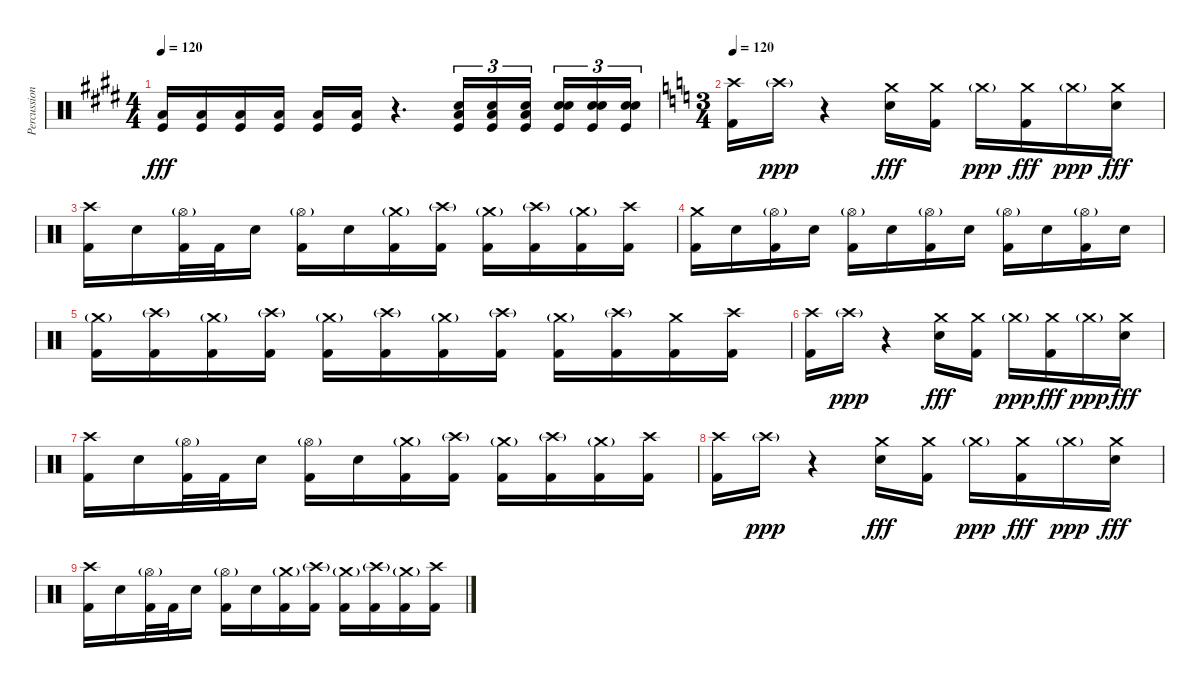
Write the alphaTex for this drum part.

\track ("Percussion" "Percussion") {instrument percussion}
\staff {score}
\articulation defaults
\ts (4 4)
\tempo 120
\clef neutral
\ks e
("Kick (hit)" "Low Floor Tom (hit)").16{dy fff} ("Kick (hit)" "Low Floor Tom (hit)").16 ("Kick (hit)" "Low Floor Tom (hit)").16 ("Kick (hit)" "Low Floor Tom (hit)").16 ("Kick (hit)" "Low Floor Tom (hit)").16 ("Kick (hit)" "Low Floor Tom (hit)").16 r.4{d} ("Kick (hit)" "Low Floor Tom (hit)" "Electric Snare (hit)").16{tu (3 2)} ("Kick (hit)" "Low Floor Tom (hit)" "Electric Snare (hit)").16{tu (3 2)} ("Kick (hit)" "Low Floor Tom (hit)" "Electric Snare (hit)").16{tu (3 2) beam splitsecondary} ("Electric Snare (hit)" "Electric Snare (hit)" "Kick (hit)").16{tu (3 2)} ("Electric Snare (hit)" "Electric Snare (hit)" "Kick (hit)").16{tu (3 2)} ("Electric Snare (hit)" "Electric Snare (hit)" "Kick (hit)").16{tu (3 2)} |
\ts (3 4)
\tempo 120
\ks c
("Crash high (hit)" "Kick (hit) 2").16 "Crash high (hit)"{g}.16{dy ppp} r.4 ("Crash medium (hit)" "Electric Snare (hit)").16{dy fff} ("Crash medium (hit)" "Kick (hit) 2").16 "Crash medium (hit)"{g}.16{dy ppp} ("Crash medium (hit)" "Kick (hit) 2").16{dy fff} "Crash medium (hit)"{g}.16{dy ppp} ("Crash medium (hit)" "Electric Snare (hit)").16{dy fff} |
("Crash high (hit)" "Kick (hit) 2").16 "Electric Snare (hit)".16 ("Hi-Hat (open)"{g} "Kick (hit) 2").32 "Kick (hit) 2".32 "Electric Snare (hit)".16 ("Hi-Hat (open)"{g} "Kick (hit) 2").16 "Electric Snare (hit)".16 ("Crash medium (hit)"{g} "Kick (hit) 2").16 ("Crash high (hit)"{g} "Kick (hit) 2").16 ("Crash medium (hit)"{g} "Kick (hit) 2").16 ("Crash high (hit)"{g} "Kick (hit) 2").16 ("Crash medium (hit)"{g} "Kick (hit) 2").16 ("Crash high (hit)" "Kick (hit) 2").16 |
("Crash medium (hit)" "Kick (hit) 2").16 "Electric Snare (hit)".16 ("Hi-Hat (open)"{g} "Kick (hit) 2").16 "Electric Snare (hit)".16 ("Hi-Hat (open)"{g} "Kick (hit) 2").16 "Electric Snare (hit)".16 ("Hi-Hat (open)"{g} "Kick (hit) 2").16 "Electric Snare (hit)".16 ("Hi-Hat (open)"{g} "Kick (hit) 2").16 "Electric Snare (hit)".16 ("Hi-Hat (open)"{g} "Kick (hit) 2").16 "Electric Snare (hit)".16 |
("Crash medium (hit)"{g} "Kick (hit) 2").16 ("Crash high (hit)"{g} "Kick (hit) 2").16 ("Crash medium (hit)"{g} "Kick (hit) 2").16 ("Crash high (hit)"{g} "Kick (hit) 2").16 ("Crash medium (hit)"{g} "Kick (hit) 2").16 ("Crash high (hit)"{g} "Kick (hit) 2").16 ("Crash medium (hit)"{g} "Kick (hit) 2").16 ("Crash high (hit)"{g} "Kick (hit) 2").16 ("Crash medium (hit)"{g} "Kick (hit) 2").16 ("Crash high (hit)"{g} "Kick (hit) 2").16 ("Crash medium (hit)" "Kick (hit) 2").16 ("Crash high (hit)" "Kick (hit) 2").16 |
("Crash high (hit)" "Kick (hit) 2").16 "Crash high (hit)"{g}.16{dy ppp} r.4 ("Crash medium (hit)" "Electric Snare (hit)").16{dy fff} ("Crash medium (hit)" "Kick (hit) 2").16 "Crash medium (hit)"{g}.16{dy ppp} ("Crash medium (hit)" "Kick (hit) 2").16{dy fff} "Crash medium (hit)"{g}.16{dy ppp} ("Crash medium (hit)" "Electric Snare (hit)").16{dy fff} |
("Crash high (hit)" "Kick (hit) 2").16 "Electric Snare (hit)".16 ("Hi-Hat (open)"{g} "Kick (hit) 2").32 "Kick (hit) 2".32 "Electric Snare (hit)".16 ("Hi-Hat (open)"{g} "Kick (hit) 2").16 "Electric Snare (hit)".16 ("Crash medium (hit)"{g} "Kick (hit) 2").16 ("Crash high (hit)"{g} "Kick (hit) 2").16 ("Crash medium (hit)"{g} "Kick (hit) 2").16 ("Crash high (hit)"{g} "Kick (hit) 2").16 ("Crash medium (hit)"{g} "Kick (hit) 2").16 ("Crash high (hit)" "Kick (hit) 2").16 |
("Crash high (hit)" "Kick (hit) 2").16 "Crash high (hit)"{g}.16{dy ppp} r.4 ("Crash medium (hit)" "Electric Snare (hit)").16{dy fff} ("Crash medium (hit)" "Kick (hit) 2").16 "Crash medium (hit)"{g}.16{dy ppp} ("Crash medium (hit)" "Kick (hit) 2").16{dy fff} "Crash medium (hit)"{g}.16{dy ppp} ("Crash medium (hit)" "Electric Snare (hit)").16{dy fff} |
("Crash high (hit)" "Kick (hit) 2").16 "Electric Snare (hit)".16 ("Hi-Hat (open)"{g} "Kick (hit) 2").32 "Kick (hit) 2".32 "Electric Snare (hit)".16 ("Hi-Hat (open)"{g} "Kick (hit) 2").16 "Electric Snare (hit)".16 ("Crash medium (hit)"{g} "Kick (hit) 2").16 ("Crash high (hit)"{g} "Kick (hit) 2").16 ("Crash medium (hit)"{g} "Kick (hit) 2").16 ("Crash high (hit)"{g} "Kick (hit) 2").16 ("Crash medium (hit)"{g} "Kick (hit) 2").16 ("Crash high (hit)" "Kick (hit) 2").16
